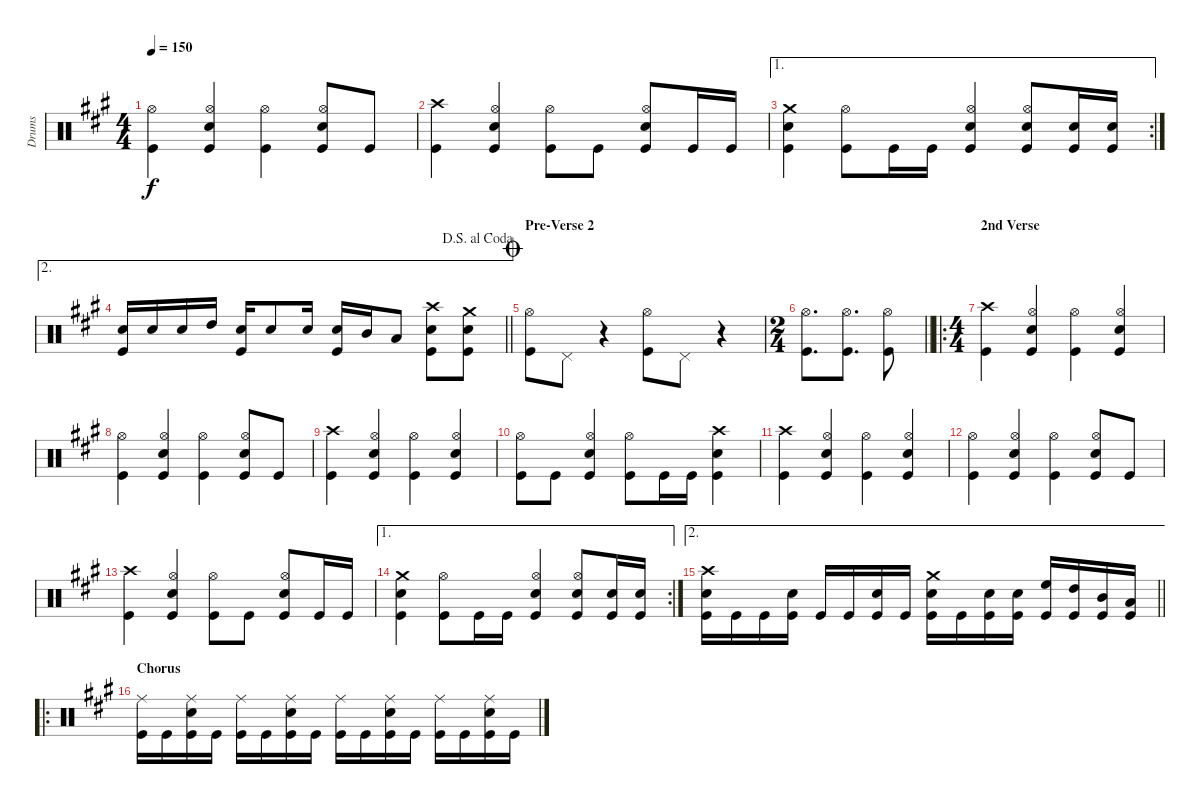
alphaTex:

\track ("Drums" "Drums") {instrument percussion}
\staff {score}
\articulation defaults
\ts (4 4)
\tempo 150
\clef neutral
\ks f#minor
("Kick (hit)" "Hi-Hat (open)").4{dy f} ("Kick (hit)" "Hi-Hat (open)" "Snare (hit) 2").4 ("Kick (hit)" "Hi-Hat (open)").4 ("Kick (hit)" "Hi-Hat (open)" "Snare (hit) 2").8 "Kick (hit)".8 |
("Kick (hit)" "Crash high (hit)").4 ("Kick (hit)" "Hi-Hat (open)" "Snare (hit) 2").4 ("Kick (hit)" "Hi-Hat (open)").8 "Kick (hit)".8 ("Kick (hit)" "Hi-Hat (open)" "Snare (hit) 2").8 "Kick (hit)".16 "Kick (hit)".16 |
\ae 1
\rc 2
("Snare (hit) 2" "Crash medium (hit)" "Kick (hit)").4 ("Kick (hit)" "Hi-Hat (open)").8 "Kick (hit)".16 "Kick (hit)".16 ("Kick (hit)" "Hi-Hat (open)" "Snare (hit) 2").4 ("Kick (hit)" "Hi-Hat (open)" "Snare (hit) 2").8 ("Kick (hit)" "Snare (hit) 2").16 ("Snare (hit) 2" "Kick (hit)").16 |
\ae 2
\jump dalsegnoalcoda
\barLineRight lightlight
("Kick (hit)" "Snare (hit) 2").16 "Snare (hit) 2".16 "Snare (hit) 2".16 "High Tom (hit)".16 ("Kick (hit)" "Snare (hit) 2").16 "Snare (hit) 2".8 "Snare (hit) 2".16 ("Kick (hit)" "Snare (hit) 2").16 "Mid Tom (hit)".16 "Low Tom (hit)".8 ("Kick (hit)" "Snare (hit) 2" "Crash high (hit)").8 ("Snare (hit) 2" "Kick (hit)" "Crash medium (hit)").8 |
\section ("" "Pre-Verse 2")
\jump coda
("Kick (hit)" "Hi-Hat (open)").8 "Pedal Hi-Hat (hit)".8 r.4 ("Kick (hit)" "Hi-Hat (open)").8 "Pedal Hi-Hat (hit)".8 r.4 |
\ts (2 4)
\barLineRight lightlight
("Kick (hit)" "Hi-Hat (open)").8{d} ("Kick (hit)" "Hi-Hat (open)").8{d} ("Kick (hit)" "Hi-Hat (open)").8 |
\ro
\ts (4 4)
\section ("" "2nd Verse")
("Kick (hit)" "Crash high (hit)").4 ("Kick (hit)" "Hi-Hat (open)" "Snare (hit) 2").4 ("Kick (hit)" "Hi-Hat (open)").4 ("Kick (hit)" "Hi-Hat (open)" "Snare (hit) 2").4 |
("Kick (hit)" "Hi-Hat (open)").4 ("Kick (hit)" "Hi-Hat (open)" "Snare (hit) 2").4 ("Kick (hit)" "Hi-Hat (open)").4 ("Kick (hit)" "Hi-Hat (open)" "Snare (hit) 2").8 "Kick (hit)".8 |
("Kick (hit)" "Crash high (hit)").4 ("Kick (hit)" "Hi-Hat (open)" "Snare (hit) 2").4 ("Kick (hit)" "Hi-Hat (open)").4 ("Kick (hit)" "Hi-Hat (open)" "Snare (hit) 2").4 |
("Kick (hit)" "Hi-Hat (open)").8 "Kick (hit)".8 ("Kick (hit)" "Hi-Hat (open)" "Snare (hit) 2").4 ("Kick (hit)" "Hi-Hat (open)").8 "Kick (hit)".16 "Kick (hit)".16 ("Kick (hit)" "Crash high (hit)" "Snare (hit) 2").4 |
("Kick (hit)" "Crash high (hit)").4 ("Kick (hit)" "Hi-Hat (open)" "Snare (hit) 2").4 ("Kick (hit)" "Hi-Hat (open)").4 ("Kick (hit)" "Hi-Hat (open)" "Snare (hit) 2").4 |
("Kick (hit)" "Hi-Hat (open)").4 ("Kick (hit)" "Hi-Hat (open)" "Snare (hit) 2").4 ("Kick (hit)" "Hi-Hat (open)").4 ("Kick (hit)" "Hi-Hat (open)" "Snare (hit) 2").8 "Kick (hit)".8 |
("Kick (hit)" "Crash high (hit)").4 ("Kick (hit)" "Hi-Hat (open)" "Snare (hit) 2").4 ("Kick (hit)" "Hi-Hat (open)").8 "Kick (hit)".8 ("Kick (hit)" "Hi-Hat (open)" "Snare (hit) 2").8 "Kick (hit)".16 "Kick (hit)".16 |
\ae 1
\rc 2
("Snare (hit) 2" "Crash medium (hit)" "Kick (hit)").4 ("Kick (hit)" "Hi-Hat (open)").8 "Kick (hit)".16 "Kick (hit)".16 ("Kick (hit)" "Hi-Hat (open)" "Snare (hit) 2").4 ("Kick (hit)" "Hi-Hat (open)" "Snare (hit) 2").8 ("Kick (hit)" "Snare (hit) 2").16 ("Snare (hit) 2" "Kick (hit)").16 |
\ae 2
\barLineRight lightlight
("Crash high (hit)" "Snare (hit) 2" "Kick (hit)").16 "Kick (hit)".16 "Kick (hit)".16 ("Snare (hit) 2" "Kick (hit)").16 "Kick (hit)".16 "Kick (hit)".16 ("Snare (hit) 2" "Kick (hit)").16 "Kick (hit)".16 ("Crash medium (hit)" "Snare (hit) 2" "Kick (hit)").16 "Kick (hit)".16 ("Kick (hit)" "Snare (hit) 2").16 ("Kick (hit)" "Snare (hit) 2").16 ("Kick (hit)" "High Floor Tom (hit)").16 ("Kick (hit)" "High Tom (hit)").16 ("Kick (hit)" "Mid Tom (hit)").16 ("Kick (hit)" "Low Tom (hit)").16 |
\ro
\section ("" "Chorus")
("Kick (hit)" "Ride (middle)").16 "Kick (hit)".16 ("Kick (hit)" "Snare (hit) 2" "Ride (middle)").16 "Kick (hit)".16 ("Kick (hit)" "Ride (middle)").16 "Kick (hit)".16 ("Kick (hit)" "Snare (hit) 2" "Ride (middle)").16 "Kick (hit)".16 ("Kick (hit)" "Ride (middle)").16 "Kick (hit)".16 ("Kick (hit)" "Snare (hit) 2" "Ride (middle)").16 "Kick (hit)".16 ("Kick (hit)" "Ride (middle)").16 "Kick (hit)".16 ("Kick (hit)" "Snare (hit) 2" "Ride (middle)").16 "Kick (hit)".16
